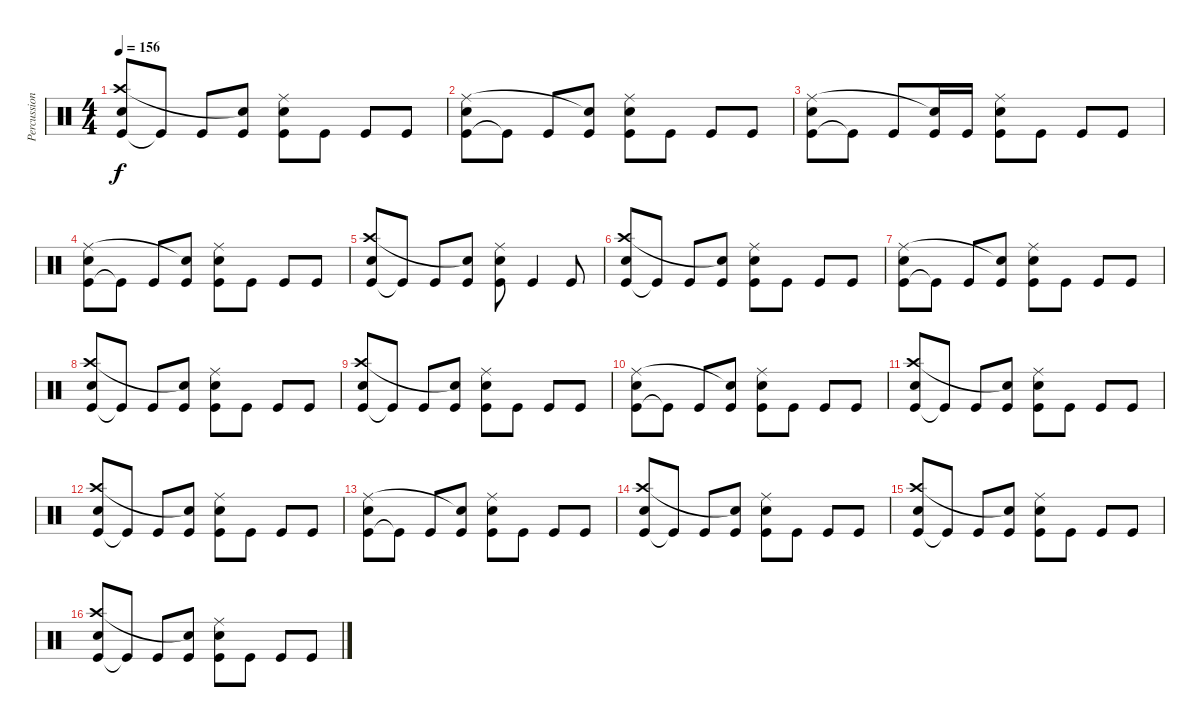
\track ("Percussion" "Percussion") {instrument percussion}
\staff {score}
\articulation defaults
\ts (4 4)
\tempo 156
\clef neutral
\ks c
("Kick (hit)" "Crash high (hit)" "Electric Snare (hit)").8{dy f} "Kick (hit)"{t}.8 "Kick (hit)".8 ("Kick (hit)" "Snare (hit)"{t}).8 ("Kick (hit)" "Ride (middle)" "Electric Snare (hit)").8 "Kick (hit)".8 "Kick (hit)".8 "Kick (hit)".8 |
("Kick (hit)" "Ride (middle)" "Electric Snare (hit)").8 "Kick (hit)"{t}.8 "Kick (hit)".8 ("Kick (hit)" "Snare (hit)"{t}).8 ("Kick (hit)" "Ride (middle)" "Electric Snare (hit)").8 "Kick (hit)".8 "Kick (hit)".8 "Kick (hit)".8 |
("Kick (hit)" "Ride (middle)" "Electric Snare (hit)").8 "Kick (hit)"{t}.8 "Kick (hit)".8 ("Kick (hit)" "Snare (hit)"{t}).16 "Kick (hit)".16 ("Kick (hit)" "Ride (middle)" "Electric Snare (hit)").8 "Kick (hit)".8 "Kick (hit)".8 "Kick (hit)".8 |
("Kick (hit)" "Ride (middle)" "Electric Snare (hit)").8 "Kick (hit)"{t}.8 "Kick (hit)".8 ("Kick (hit)" "Snare (hit)"{t}).8 ("Kick (hit)" "Ride (middle)" "Electric Snare (hit)").8 "Kick (hit)".8 "Kick (hit)".8 "Kick (hit)".8 |
("Kick (hit)" "Crash high (hit)" "Electric Snare (hit)").8 "Kick (hit)"{t}.8 "Kick (hit)".8 ("Kick (hit)" "Snare (hit)"{t}).8 ("Kick (hit)" "Ride (middle)" "Electric Snare (hit)").8 "Kick (hit)".4 "Kick (hit)".8 |
("Kick (hit)" "Crash high (hit)" "Electric Snare (hit)").8 "Kick (hit)"{t}.8 "Kick (hit)".8 ("Kick (hit)" "Snare (hit)"{t}).8 ("Kick (hit)" "Ride (middle)" "Electric Snare (hit)").8 "Kick (hit)".8 "Kick (hit)".8 "Kick (hit)".8 |
("Kick (hit)" "Ride (middle)" "Electric Snare (hit)").8 "Kick (hit)"{t}.8 "Kick (hit)".8 ("Kick (hit)" "Snare (hit)"{t}).8 ("Kick (hit)" "Ride (middle)" "Electric Snare (hit)").8 "Kick (hit)".8 "Kick (hit)".8 "Kick (hit)".8 |
("Kick (hit)" "Crash high (hit)" "Electric Snare (hit)").8 "Kick (hit)"{t}.8 "Kick (hit)".8 ("Kick (hit)" "Snare (hit)"{t}).8 ("Kick (hit)" "Ride (middle)" "Electric Snare (hit)").8 "Kick (hit)".8 "Kick (hit)".8 "Kick (hit)".8 |
("Kick (hit)" "Crash high (hit)" "Electric Snare (hit)").8 "Kick (hit)"{t}.8 "Kick (hit)".8 ("Kick (hit)" "Snare (hit)"{t}).8 ("Kick (hit)" "Ride (middle)" "Electric Snare (hit)").8 "Kick (hit)".8 "Kick (hit)".8 "Kick (hit)".8 |
("Kick (hit)" "Ride (middle)" "Electric Snare (hit)").8 "Kick (hit)"{t}.8 "Kick (hit)".8 ("Kick (hit)" "Snare (hit)"{t}).8 ("Kick (hit)" "Ride (middle)" "Electric Snare (hit)").8 "Kick (hit)".8 "Kick (hit)".8 "Kick (hit)".8 |
("Kick (hit)" "Crash high (hit)" "Electric Snare (hit)").8 "Kick (hit)"{t}.8 "Kick (hit)".8 ("Kick (hit)" "Snare (hit)"{t}).8 ("Kick (hit)" "Ride (middle)" "Electric Snare (hit)").8 "Kick (hit)".8 "Kick (hit)".8 "Kick (hit)".8 |
("Kick (hit)" "Crash high (hit)" "Electric Snare (hit)").8 "Kick (hit)"{t}.8 "Kick (hit)".8 ("Kick (hit)" "Snare (hit)"{t}).8 ("Kick (hit)" "Ride (middle)" "Electric Snare (hit)").8 "Kick (hit)".8 "Kick (hit)".8 "Kick (hit)".8 |
("Kick (hit)" "Ride (middle)" "Electric Snare (hit)").8 "Kick (hit)"{t}.8 "Kick (hit)".8 ("Kick (hit)" "Snare (hit)"{t}).8 ("Kick (hit)" "Ride (middle)" "Electric Snare (hit)").8 "Kick (hit)".8 "Kick (hit)".8 "Kick (hit)".8 |
("Kick (hit)" "Crash high (hit)" "Electric Snare (hit)").8 "Kick (hit)"{t}.8 "Kick (hit)".8 ("Kick (hit)" "Snare (hit)"{t}).8 ("Kick (hit)" "Ride (middle)" "Electric Snare (hit)").8 "Kick (hit)".8 "Kick (hit)".8 "Kick (hit)".8 |
("Kick (hit)" "Crash high (hit)" "Electric Snare (hit)").8 "Kick (hit)"{t}.8 "Kick (hit)".8 ("Kick (hit)" "Snare (hit)"{t}).8 ("Kick (hit)" "Ride (middle)" "Electric Snare (hit)").8 "Kick (hit)".8 "Kick (hit)".8 "Kick (hit)".8 |
("Kick (hit)" "Crash high (hit)" "Electric Snare (hit)").8 "Kick (hit)"{t}.8 "Kick (hit)".8 ("Kick (hit)" "Snare (hit)"{t}).8 ("Kick (hit)" "Ride (middle)" "Electric Snare (hit)").8 "Kick (hit)".8 "Kick (hit)".8 "Kick (hit)".8
